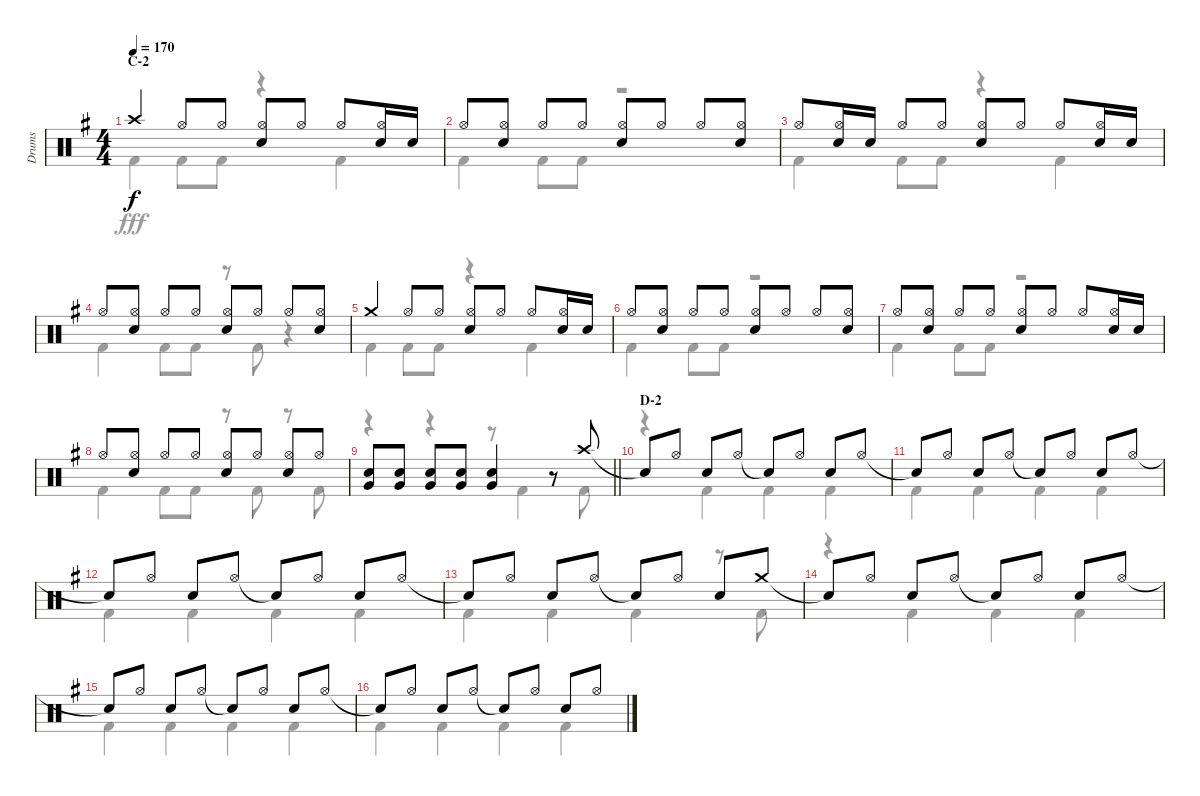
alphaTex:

\track ("Drums" "Drums") {instrument percussion}
\staff {score}
\articulation defaults
\voice
\ts (4 4)
\section ("" "C-2")
\tempo 170
\clef neutral
\ks g "Crash high (hit)".4{dy f} "Hi-Hat (open)".8 "Hi-Hat (open)".8
("Hi-Hat (open)" "Snare (hit) 2").8 "Hi-Hat (open)".8 "Hi-Hat (open)".8 ("Hi-Hat (open)" "Snare (hit) 2").16 "Snare (hit) 2".16 |
"Hi-Hat (open)".8 ("Hi-Hat (open)" "Snare (hit) 2").8 "Hi-Hat (open)".8 "Hi-Hat (open)".8 ("Hi-Hat (open)" "Snare (hit) 2").8 "Hi-Hat (open)".8 "Hi-Hat (open)".8 ("Hi-Hat (open)" "Snare (hit) 2").8 |
"Hi-Hat (open)".8 ("Hi-Hat (open)" "Snare (hit) 2").16 "Snare (hit) 2".16 "Hi-Hat (open)".8 "Hi-Hat (open)".8 ("Hi-Hat (open)" "Snare (hit) 2").8 "Hi-Hat (open)".8 "Hi-Hat (open)".8 ("Hi-Hat (open)" "Snare (hit) 2").16 "Snare (hit) 2".16 |
"Hi-Hat (open)".8 ("Hi-Hat (open)" "Snare (hit) 2").8 "Hi-Hat (open)".8 "Hi-Hat (open)".8 ("Hi-Hat (open)" "Snare (hit) 2").8 "Hi-Hat (open)".8 "Hi-Hat (open)".8 ("Hi-Hat (open)" "Snare (hit) 2").8 |
"Crash medium (hit)".4 "Hi-Hat (open)".8 "Hi-Hat (open)".8 ("Hi-Hat (open)" "Snare (hit) 2").8 "Hi-Hat (open)".8 "Hi-Hat (open)".8 ("Hi-Hat (open)" "Snare (hit) 2").16 "Snare (hit) 2".16 |
"Hi-Hat (open)".8 ("Hi-Hat (open)" "Snare (hit) 2").8 "Hi-Hat (open)".8 "Hi-Hat (open)".8 ("Hi-Hat (open)" "Snare (hit) 2").8 "Hi-Hat (open)".8 "Hi-Hat (open)".8 ("Hi-Hat (open)" "Snare (hit) 2").8 |
"Hi-Hat (open)".8 ("Hi-Hat (open)" "Snare (hit) 2").8 "Hi-Hat (open)".8 "Hi-Hat (open)".8 ("Hi-Hat (open)" "Snare (hit) 2").8 "Hi-Hat (open)".8 "Hi-Hat (open)".8 ("Hi-Hat (open)" "Snare (hit) 2").16 "Snare (hit) 2".16 |
"Hi-Hat (open)".8 ("Hi-Hat (open)" "Snare (hit) 2").8 "Hi-Hat (open)".8 "Hi-Hat (open)".8 ("Hi-Hat (open)" "Snare (hit) 2").8 "Hi-Hat (open)".8 ("Hi-Hat (open)" "Snare (hit) 2").8 "Hi-Hat (open)".8 |
\barLineRight lightlight
("Snare (hit) 2" "Very Low Tom (hit)").8 ("Snare (hit) 2" "Very Low Tom (hit)").8 ("Snare (hit) 2" "Very Low Tom (hit)").8 ("Snare (hit) 2" "Very Low Tom (hit)").8 ("Snare (hit) 2" "Very Low Tom (hit)").4 r.8 "Crash high (hit)".8 |
\section ("" "D-2")
"Snare (hit)"{t}.8 "Hi-Hat (open)".8 "Snare (hit) 2".8 "Hi-Hat (open)".8 "Snare (hit)"{t}.8 "Hi-Hat (open)".8 "Snare (hit) 2".8 "Hi-Hat (open)".8 |
"Snare (hit)"{t}.8 "Hi-Hat (open)".8 "Snare (hit) 2".8 "Hi-Hat (open)".8 "Snare (hit)"{t}.8 "Hi-Hat (open)".8 "Snare (hit) 2".8 "Hi-Hat (open)".8 |
"Snare (hit)"{t}.8 "Hi-Hat (open)".8 "Snare (hit) 2".8 "Hi-Hat (open)".8 "Snare (hit)"{t}.8 "Hi-Hat (open)".8 "Snare (hit) 2".8 "Hi-Hat (open)".8 |
"Snare (hit)"{t}.8 "Hi-Hat (open)".8 "Snare (hit) 2".8 "Hi-Hat (open)".8 "Snare (hit)"{t}.8 "Hi-Hat (open)".8 "Snare (hit) 2".8 "Crash medium (hit)".8 |
"Snare (hit)"{t}.8 "Hi-Hat (open)".8 "Snare (hit) 2".8 "Hi-Hat (open)".8 "Snare (hit)"{t}.8 "Hi-Hat (open)".8 "Snare (hit) 2".8 "Hi-Hat (open)".8 |
"Snare (hit)"{t}.8 "Hi-Hat (open)".8 "Snare (hit) 2".8 "Hi-Hat (open)".8 "Snare (hit)"{t}.8 "Hi-Hat (open)".8 "Snare (hit) 2".8 "Hi-Hat (open)".8 |
"Snare (hit)"{t}.8 "Hi-Hat (open)".8 "Snare (hit) 2".8 "Hi-Hat (open)".8 "Snare (hit)"{t}.8 "Hi-Hat (open)".8 "Snare (hit) 2".8 "Hi-Hat (open)".8
\voice
\clef neutral
\ottava regular
\simile none
\ks g "Kick (hit) 2".4{dy fff} "Kick (hit) 2".8 "Kick (hit) 2".8
r.4 "Kick (hit) 2".4 |
"Kick (hit) 2".4 "Kick (hit) 2".8 "Kick (hit) 2".8 r.2 |
"Kick (hit) 2".4 "Kick (hit) 2".8 "Kick (hit) 2".8 r.4 "Kick (hit) 2".4 |
"Kick (hit) 2".4 "Kick (hit) 2".8 "Kick (hit) 2".8 r.8 "Kick (hit) 2".8 r.4 |
"Kick (hit) 2".4 "Kick (hit) 2".8 "Kick (hit) 2".8 r.4 "Kick (hit) 2".4 |
"Kick (hit) 2".4 "Kick (hit) 2".8 "Kick (hit) 2".8 r.2 |
"Kick (hit) 2".4 "Kick (hit) 2".8 "Kick (hit) 2".8 r.2 |
"Kick (hit) 2".4 "Kick (hit) 2".8 "Kick (hit) 2".8 r.8 "Kick (hit) 2".8 r.8 "Kick (hit) 2".8 |
\barLineRight lightlight
r.4 r.4 r.8 "Kick (hit) 2".4 "Kick (hit) 2".8 |
r.4 "Kick (hit) 2".4 "Kick (hit) 2".4 "Kick (hit) 2".4 |
"Kick (hit) 2".4 "Kick (hit) 2".4 "Kick (hit) 2".4 "Kick (hit) 2".4 |
"Kick (hit) 2".4 "Kick (hit) 2".4 "Kick (hit) 2".4 "Kick (hit) 2".4 |
"Kick (hit) 2".4 "Kick (hit) 2".4 "Kick (hit) 2".4 r.8 "Kick (hit) 2".8 |
r.4 "Kick (hit) 2".4 "Kick (hit) 2".4 "Kick (hit) 2".4 |
"Kick (hit) 2".4 "Kick (hit) 2".4 "Kick (hit) 2".4 "Kick (hit) 2".4 |
"Kick (hit) 2".4 "Kick (hit) 2".4 "Kick (hit) 2".4 "Kick (hit) 2".4
